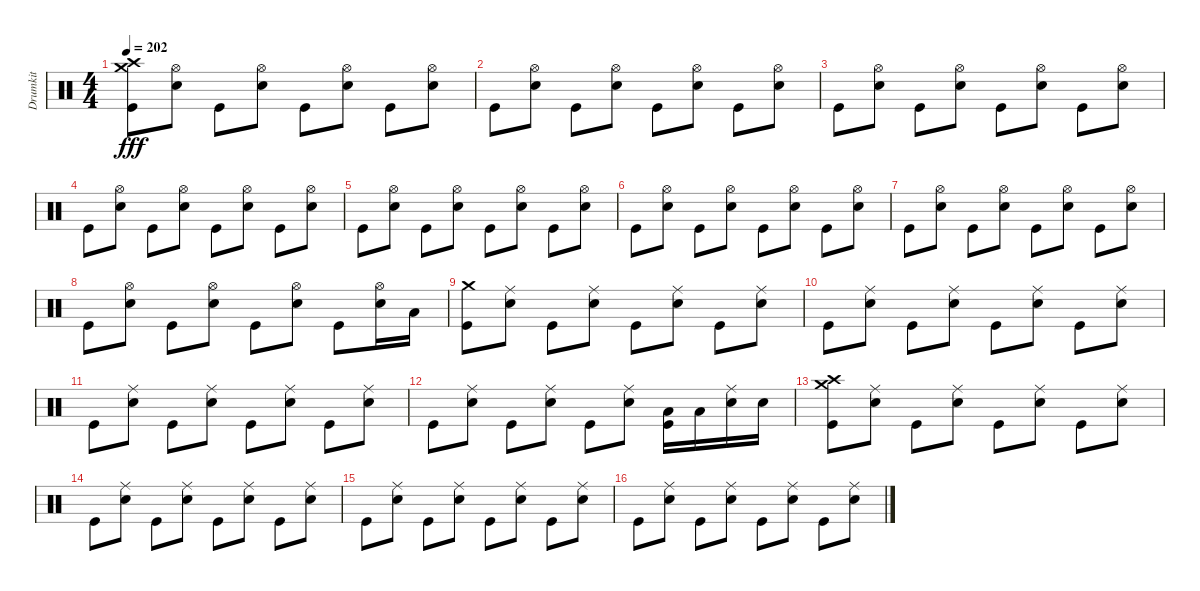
\track ("Drumkit" "Drumkit") {instrument percussion}
\staff {score}
\articulation defaults
\ts (4 4)
\tempo 202
\clef neutral
\ks c
("Crash high (hit)" "Crash medium (hit)" "Kick (hit)").8{dy fff} ("Hi-Hat (open)" "Snare (hit) 2").8 "Kick (hit)".8 ("Hi-Hat (open)" "Snare (hit) 2").8 "Kick (hit)".8 ("Hi-Hat (open)" "Snare (hit) 2").8 "Kick (hit)".8 ("Hi-Hat (open)" "Snare (hit) 2").8 |
"Kick (hit)".8 ("Hi-Hat (open)" "Snare (hit) 2").8 "Kick (hit)".8 ("Hi-Hat (open)" "Snare (hit) 2").8 "Kick (hit)".8 ("Hi-Hat (open)" "Snare (hit) 2").8 "Kick (hit)".8 ("Hi-Hat (open)" "Snare (hit) 2").8 |
"Kick (hit)".8 ("Hi-Hat (open)" "Snare (hit) 2").8 "Kick (hit)".8 ("Hi-Hat (open)" "Snare (hit) 2").8 "Kick (hit)".8 ("Hi-Hat (open)" "Snare (hit) 2").8 "Kick (hit)".8 ("Hi-Hat (open)" "Snare (hit) 2").8 |
"Kick (hit)".8 ("Hi-Hat (open)" "Snare (hit) 2").8 "Kick (hit)".8 ("Hi-Hat (open)" "Snare (hit) 2").8 "Kick (hit)".8 ("Hi-Hat (open)" "Snare (hit) 2").8 "Kick (hit)".8 ("Hi-Hat (open)" "Snare (hit) 2").8 |
"Kick (hit)".8 ("Hi-Hat (open)" "Snare (hit) 2").8 "Kick (hit)".8 ("Hi-Hat (open)" "Snare (hit) 2").8 "Kick (hit)".8 ("Hi-Hat (open)" "Snare (hit) 2").8 "Kick (hit)".8 ("Hi-Hat (open)" "Snare (hit) 2").8 |
"Kick (hit)".8 ("Hi-Hat (open)" "Snare (hit) 2").8 "Kick (hit)".8 ("Hi-Hat (open)" "Snare (hit) 2").8 "Kick (hit)".8 ("Hi-Hat (open)" "Snare (hit) 2").8 "Kick (hit)".8 ("Hi-Hat (open)" "Snare (hit) 2").8 |
"Kick (hit)".8 ("Hi-Hat (open)" "Snare (hit) 2").8 "Kick (hit)".8 ("Hi-Hat (open)" "Snare (hit) 2").8 "Kick (hit)".8 ("Hi-Hat (open)" "Snare (hit) 2").8 "Kick (hit)".8 ("Hi-Hat (open)" "Snare (hit) 2").8 |
"Kick (hit)".8 ("Hi-Hat (open)" "Snare (hit) 2").8 "Kick (hit)".8 ("Hi-Hat (open)" "Snare (hit) 2").8 "Kick (hit)".8 ("Hi-Hat (open)" "Snare (hit) 2").8 "Kick (hit)".8 ("Hi-Hat (open)" "Snare (hit) 2").16 "Low Tom (hit)".16 |
("Crash medium (hit)" "Kick (hit)").8 ("Ride (middle)" "Snare (hit) 2").8 "Kick (hit)".8 ("Ride (middle)" "Snare (hit) 2").8 "Kick (hit)".8 ("Ride (middle)" "Snare (hit) 2").8 "Kick (hit)".8 ("Ride (middle)" "Snare (hit) 2").8 |
"Kick (hit)".8 ("Ride (middle)" "Snare (hit) 2").8 "Kick (hit)".8 ("Ride (middle)" "Snare (hit) 2").8 "Kick (hit)".8 ("Ride (middle)" "Snare (hit) 2").8 "Kick (hit)".8 ("Ride (middle)" "Snare (hit) 2").8 |
"Kick (hit)".8 ("Ride (middle)" "Snare (hit) 2").8 "Kick (hit)".8 ("Ride (middle)" "Snare (hit) 2").8 "Kick (hit)".8 ("Ride (middle)" "Snare (hit) 2").8 "Kick (hit)".8 ("Ride (middle)" "Snare (hit) 2").8 |
"Kick (hit)".8 ("Ride (middle)" "Snare (hit) 2").8 "Kick (hit)".8 ("Ride (middle)" "Snare (hit) 2").8 "Kick (hit)".8 ("Ride (middle)" "Snare (hit) 2").8 ("Low Tom (hit)" "Kick (hit)").16 "Low Tom (hit)".16 ("Ride (middle)" "Snare (hit) 2").16 "Snare (hit) 2".16 |
("Crash medium (hit)" "Crash high (hit)" "Kick (hit)").8 ("Ride (middle)" "Snare (hit) 2").8 "Kick (hit)".8 ("Ride (middle)" "Snare (hit) 2").8 "Kick (hit)".8 ("Ride (middle)" "Snare (hit) 2").8 "Kick (hit)".8 ("Ride (middle)" "Snare (hit) 2").8 |
"Kick (hit)".8 ("Ride (middle)" "Snare (hit) 2").8 "Kick (hit)".8 ("Ride (middle)" "Snare (hit) 2").8 "Kick (hit)".8 ("Ride (middle)" "Snare (hit) 2").8 "Kick (hit)".8 ("Ride (middle)" "Snare (hit) 2").8 |
"Kick (hit)".8 ("Ride (middle)" "Snare (hit) 2").8 "Kick (hit)".8 ("Ride (middle)" "Snare (hit) 2").8 "Kick (hit)".8 ("Ride (middle)" "Snare (hit) 2").8 "Kick (hit)".8 ("Ride (middle)" "Snare (hit) 2").8 |
"Kick (hit)".8 ("Ride (middle)" "Snare (hit) 2").8 "Kick (hit)".8 ("Ride (middle)" "Snare (hit) 2").8 "Kick (hit)".8 ("Ride (middle)" "Snare (hit) 2").8 "Kick (hit)".8 ("Ride (middle)" "Snare (hit) 2").8
